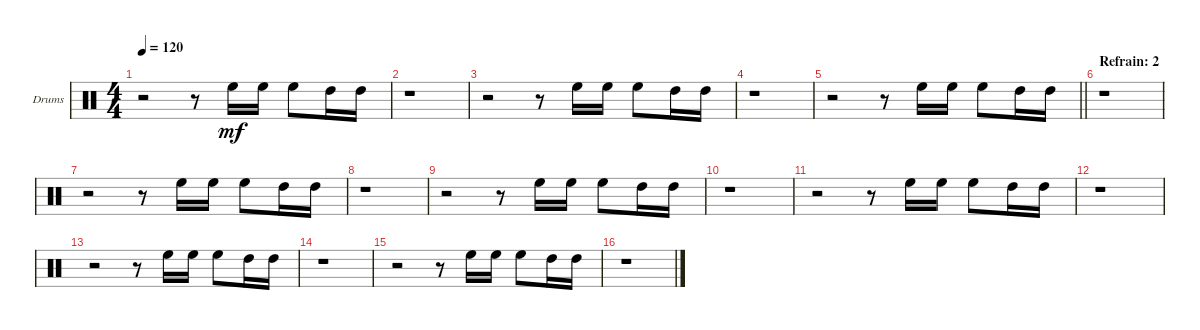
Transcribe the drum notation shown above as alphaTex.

\bracketExtendMode groupsimilarinstruments
\firstSystemTrackNameOrientation horizontal
\otherSystemsTrackNameOrientation horizontal
\track ("Drumkit" "Drums") {instrument percussion}
\staff {score}
\articulation defaults
\ts (4 4)
\tempo 120
\clef neutral
\ks c
r.2{dy mf} r.8 "High Floor Tom (hit)".16 "High Floor Tom (hit)".16 "High Floor Tom (hit)".8 "High Tom (hit)".16 "High Tom (hit)".16 |
r.1 |
r.2 r.8 "High Floor Tom (hit)".16 "High Floor Tom (hit)".16 "High Floor Tom (hit)".8 "High Tom (hit)".16 "High Tom (hit)".16 |
r.1 |
\barLineRight lightlight
r.2 r.8 "High Floor Tom (hit)".16 "High Floor Tom (hit)".16 "High Floor Tom (hit)".8 "High Tom (hit)".16 "High Tom (hit)".16 |
\section ("" "Refrain: 2")
r.1 |
r.2 r.8 "High Floor Tom (hit)".16 "High Floor Tom (hit)".16 "High Floor Tom (hit)".8 "High Tom (hit)".16 "High Tom (hit)".16 |
r.1 |
r.2 r.8 "High Floor Tom (hit)".16 "High Floor Tom (hit)".16 "High Floor Tom (hit)".8 "High Tom (hit)".16 "High Tom (hit)".16 |
r.1 |
r.2 r.8 "High Floor Tom (hit)".16 "High Floor Tom (hit)".16 "High Floor Tom (hit)".8 "High Tom (hit)".16 "High Tom (hit)".16 |
r.1 |
r.2 r.8 "High Floor Tom (hit)".16 "High Floor Tom (hit)".16 "High Floor Tom (hit)".8 "High Tom (hit)".16 "High Tom (hit)".16 |
r.1 |
r.2 r.8 "High Floor Tom (hit)".16 "High Floor Tom (hit)".16 "High Floor Tom (hit)".8 "High Tom (hit)".16 "High Tom (hit)".16 |
r.1
